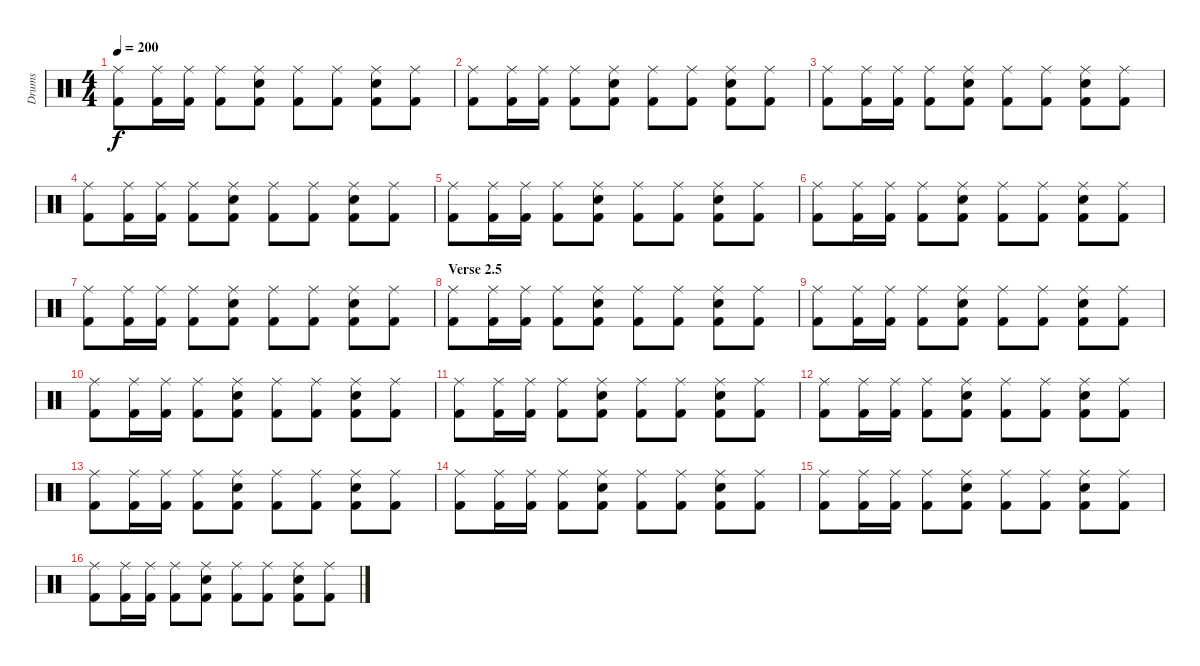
\track ("Drums" "Drums") {instrument percussion}
\staff {score}
\articulation defaults
\ts (4 4)
\tempo 200
\clef neutral
\ks c
("Ride (middle)" "Kick (hit) 2").8{dy f} ("Ride (middle)" "Kick (hit) 2").16 ("Ride (middle)" "Kick (hit) 2").16 ("Ride (middle)" "Kick (hit) 2").8 ("Ride (middle)" "Snare (hit) 2" "Kick (hit) 2").8 ("Ride (middle)" "Kick (hit) 2").8 ("Ride (middle)" "Kick (hit) 2").8 ("Ride (middle)" "Snare (hit) 2" "Kick (hit) 2").8 ("Ride (middle)" "Kick (hit) 2").8 |
("Ride (middle)" "Kick (hit) 2").8 ("Ride (middle)" "Kick (hit) 2").16 ("Ride (middle)" "Kick (hit) 2").16 ("Ride (middle)" "Kick (hit) 2").8 ("Ride (middle)" "Snare (hit) 2" "Kick (hit) 2").8 ("Ride (middle)" "Kick (hit) 2").8 ("Ride (middle)" "Kick (hit) 2").8 ("Ride (middle)" "Snare (hit) 2" "Kick (hit) 2").8 ("Ride (middle)" "Kick (hit) 2").8 |
("Ride (middle)" "Kick (hit) 2").8 ("Ride (middle)" "Kick (hit) 2").16 ("Ride (middle)" "Kick (hit) 2").16 ("Ride (middle)" "Kick (hit) 2").8 ("Ride (middle)" "Snare (hit) 2" "Kick (hit) 2").8 ("Ride (middle)" "Kick (hit) 2").8 ("Ride (middle)" "Kick (hit) 2").8 ("Ride (middle)" "Snare (hit) 2" "Kick (hit) 2").8 ("Ride (middle)" "Kick (hit) 2").8 |
("Ride (middle)" "Kick (hit) 2").8 ("Ride (middle)" "Kick (hit) 2").16 ("Ride (middle)" "Kick (hit) 2").16 ("Ride (middle)" "Kick (hit) 2").8 ("Ride (middle)" "Snare (hit) 2" "Kick (hit) 2").8 ("Ride (middle)" "Kick (hit) 2").8 ("Ride (middle)" "Kick (hit) 2").8 ("Ride (middle)" "Snare (hit) 2" "Kick (hit) 2").8 ("Ride (middle)" "Kick (hit) 2").8 |
("Ride (middle)" "Kick (hit) 2").8 ("Ride (middle)" "Kick (hit) 2").16 ("Ride (middle)" "Kick (hit) 2").16 ("Ride (middle)" "Kick (hit) 2").8 ("Ride (middle)" "Snare (hit) 2" "Kick (hit) 2").8 ("Ride (middle)" "Kick (hit) 2").8 ("Ride (middle)" "Kick (hit) 2").8 ("Ride (middle)" "Snare (hit) 2" "Kick (hit) 2").8 ("Ride (middle)" "Kick (hit) 2").8 |
("Ride (middle)" "Kick (hit) 2").8 ("Ride (middle)" "Kick (hit) 2").16 ("Ride (middle)" "Kick (hit) 2").16 ("Ride (middle)" "Kick (hit) 2").8 ("Ride (middle)" "Snare (hit) 2" "Kick (hit) 2").8 ("Ride (middle)" "Kick (hit) 2").8 ("Ride (middle)" "Kick (hit) 2").8 ("Ride (middle)" "Snare (hit) 2" "Kick (hit) 2").8 ("Ride (middle)" "Kick (hit) 2").8 |
("Ride (middle)" "Kick (hit) 2").8 ("Ride (middle)" "Kick (hit) 2").16 ("Ride (middle)" "Kick (hit) 2").16 ("Ride (middle)" "Kick (hit) 2").8 ("Ride (middle)" "Snare (hit) 2" "Kick (hit) 2").8 ("Ride (middle)" "Kick (hit) 2").8 ("Ride (middle)" "Kick (hit) 2").8 ("Ride (middle)" "Snare (hit) 2" "Kick (hit) 2").8 ("Ride (middle)" "Kick (hit) 2").8 |
\section ("" "Verse 2.5")
("Ride (middle)" "Kick (hit) 2").8 ("Ride (middle)" "Kick (hit) 2").16 ("Ride (middle)" "Kick (hit) 2").16 ("Ride (middle)" "Kick (hit) 2").8 ("Ride (middle)" "Snare (hit) 2" "Kick (hit) 2").8 ("Ride (middle)" "Kick (hit) 2").8 ("Ride (middle)" "Kick (hit) 2").8 ("Ride (middle)" "Snare (hit) 2" "Kick (hit) 2").8 ("Ride (middle)" "Kick (hit) 2").8 |
("Ride (middle)" "Kick (hit) 2").8 ("Ride (middle)" "Kick (hit) 2").16 ("Ride (middle)" "Kick (hit) 2").16 ("Ride (middle)" "Kick (hit) 2").8 ("Ride (middle)" "Snare (hit) 2" "Kick (hit) 2").8 ("Ride (middle)" "Kick (hit) 2").8 ("Ride (middle)" "Kick (hit) 2").8 ("Ride (middle)" "Snare (hit) 2" "Kick (hit) 2").8 ("Ride (middle)" "Kick (hit) 2").8 |
("Ride (middle)" "Kick (hit) 2").8 ("Ride (middle)" "Kick (hit) 2").16 ("Ride (middle)" "Kick (hit) 2").16 ("Ride (middle)" "Kick (hit) 2").8 ("Ride (middle)" "Snare (hit) 2" "Kick (hit) 2").8 ("Ride (middle)" "Kick (hit) 2").8 ("Ride (middle)" "Kick (hit) 2").8 ("Ride (middle)" "Snare (hit) 2" "Kick (hit) 2").8 ("Ride (middle)" "Kick (hit) 2").8 |
("Ride (middle)" "Kick (hit) 2").8 ("Ride (middle)" "Kick (hit) 2").16 ("Ride (middle)" "Kick (hit) 2").16 ("Ride (middle)" "Kick (hit) 2").8 ("Ride (middle)" "Snare (hit) 2" "Kick (hit) 2").8 ("Ride (middle)" "Kick (hit) 2").8 ("Ride (middle)" "Kick (hit) 2").8 ("Ride (middle)" "Snare (hit) 2" "Kick (hit) 2").8 ("Ride (middle)" "Kick (hit) 2").8 |
("Ride (middle)" "Kick (hit) 2").8 ("Ride (middle)" "Kick (hit) 2").16 ("Ride (middle)" "Kick (hit) 2").16 ("Ride (middle)" "Kick (hit) 2").8 ("Ride (middle)" "Snare (hit) 2" "Kick (hit) 2").8 ("Ride (middle)" "Kick (hit) 2").8 ("Ride (middle)" "Kick (hit) 2").8 ("Ride (middle)" "Snare (hit) 2" "Kick (hit) 2").8 ("Ride (middle)" "Kick (hit) 2").8 |
("Ride (middle)" "Kick (hit) 2").8 ("Ride (middle)" "Kick (hit) 2").16 ("Ride (middle)" "Kick (hit) 2").16 ("Ride (middle)" "Kick (hit) 2").8 ("Ride (middle)" "Snare (hit) 2" "Kick (hit) 2").8 ("Ride (middle)" "Kick (hit) 2").8 ("Ride (middle)" "Kick (hit) 2").8 ("Ride (middle)" "Snare (hit) 2" "Kick (hit) 2").8 ("Ride (middle)" "Kick (hit) 2").8 |
("Ride (middle)" "Kick (hit) 2").8 ("Ride (middle)" "Kick (hit) 2").16 ("Ride (middle)" "Kick (hit) 2").16 ("Ride (middle)" "Kick (hit) 2").8 ("Ride (middle)" "Snare (hit) 2" "Kick (hit) 2").8 ("Ride (middle)" "Kick (hit) 2").8 ("Ride (middle)" "Kick (hit) 2").8 ("Ride (middle)" "Snare (hit) 2" "Kick (hit) 2").8 ("Ride (middle)" "Kick (hit) 2").8 |
("Ride (middle)" "Kick (hit) 2").8 ("Ride (middle)" "Kick (hit) 2").16 ("Ride (middle)" "Kick (hit) 2").16 ("Ride (middle)" "Kick (hit) 2").8 ("Ride (middle)" "Snare (hit) 2" "Kick (hit) 2").8 ("Ride (middle)" "Kick (hit) 2").8 ("Ride (middle)" "Kick (hit) 2").8 ("Ride (middle)" "Snare (hit) 2" "Kick (hit) 2").8 ("Ride (middle)" "Kick (hit) 2").8 |
("Ride (middle)" "Kick (hit) 2").8 ("Ride (middle)" "Kick (hit) 2").16 ("Ride (middle)" "Kick (hit) 2").16 ("Ride (middle)" "Kick (hit) 2").8 ("Ride (middle)" "Snare (hit) 2" "Kick (hit) 2").8 ("Ride (middle)" "Kick (hit) 2").8 ("Ride (middle)" "Kick (hit) 2").8 ("Ride (middle)" "Snare (hit) 2" "Kick (hit) 2").8 ("Ride (middle)" "Kick (hit) 2").8
